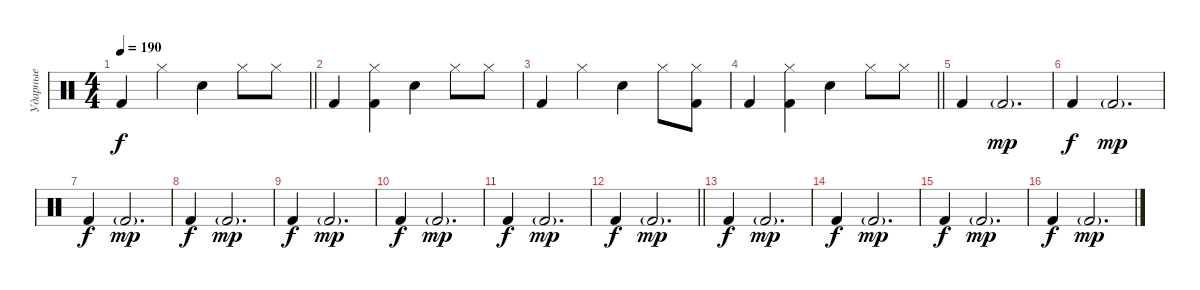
\track ("Ударные" "Ударные") {instrument percussion}
\staff {score}
\articulation defaults
\ts (4 4)
\tempo 190
\clef neutral
\barLineRight lightlight
\ks c "Kick (hit) 2".4{dy f} "Hi-Hat (closed)".4 "Electric Snare (hit)".4 "Hi-Hat (closed)".8 "Hi-Hat (closed)".8
|
"Kick (hit) 2".4 ("Kick (hit) 2" "Hi-Hat (closed)").4 "Electric Snare (hit)".4 "Hi-Hat (closed)".8 "Hi-Hat (closed)".8 |
"Kick (hit) 2".4 "Hi-Hat (closed)".4 "Electric Snare (hit)".4 "Hi-Hat (closed)".8 ("Kick (hit) 2" "Hi-Hat (closed)").8 |
\barLineRight lightlight "Kick (hit) 2".4
("Kick (hit) 2" "Hi-Hat (closed)").4 "Electric Snare (hit)".4 "Hi-Hat (closed)".8 "Hi-Hat (closed)".8 |
\section ("" "")
"Kick (hit) 2".4 "Kick (hit) 2"{g}.2{d dy mp} |
"Kick (hit) 2".4{dy f} "Kick (hit) 2"{g}.2{d dy mp} |
"Kick (hit) 2".4{dy f} "Kick (hit) 2"{g}.2{d dy mp} |
"Kick (hit) 2".4{dy f} "Kick (hit) 2"{g}.2{d dy mp} |
"Kick (hit) 2".4{dy f} "Kick (hit) 2"{g}.2{d dy mp} |
"Kick (hit) 2".4{dy f} "Kick (hit) 2"{g}.2{d dy mp} |
"Kick (hit) 2".4{dy f} "Kick (hit) 2"{g}.2{d dy mp} |
\barLineRight lightlight "Kick (hit) 2".4{dy f} "Kick (hit) 2"{g}.2{d dy mp}
|
"Kick (hit) 2".4{dy f} "Kick (hit) 2"{g}.2{d dy mp} |
"Kick (hit) 2".4{dy f} "Kick (hit) 2"{g}.2{d dy mp} |
"Kick (hit) 2".4{dy f} "Kick (hit) 2"{g}.2{d dy mp} |
"Kick (hit) 2".4{dy f} "Kick (hit) 2"{g}.2{d dy mp}
